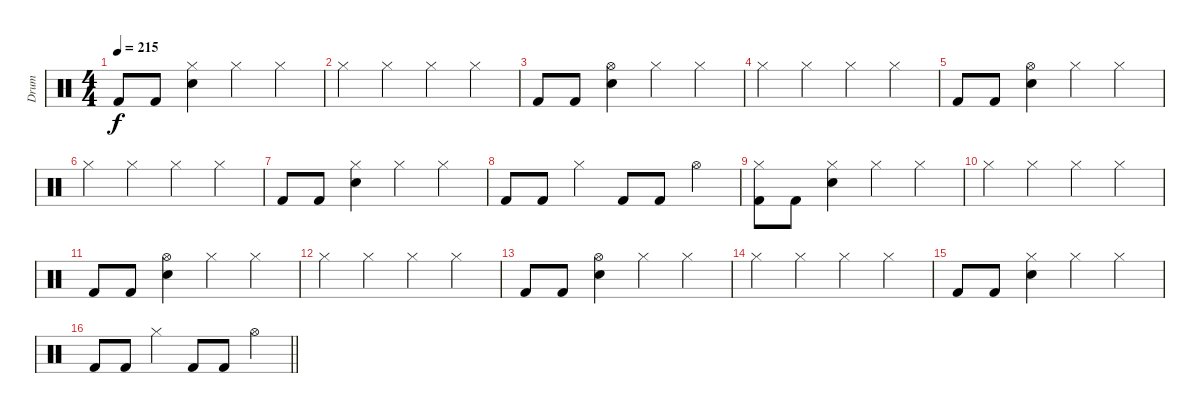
\track ("Drum" "Drum") {instrument percussion}
\staff {score}
\articulation defaults
\ts (4 4)
\tempo 215
\clef neutral
\ks c "Kick (hit) 2".8{dy f} "Kick (hit) 2".8
("Electric Snare (hit)" "Hi-Hat (closed)").4 "Hi-Hat (closed)".4 "Hi-Hat (closed)".4 |
"Hi-Hat (closed)".4 "Hi-Hat (closed)".4 "Hi-Hat (closed)".4 "Hi-Hat (closed)".4 |
"Kick (hit) 2".8 "Kick (hit) 2".8 ("Electric Snare (hit)" "Hi-Hat (open)").4 "Hi-Hat (closed)".4 "Hi-Hat (closed)".4 |
"Hi-Hat (closed)".4 "Hi-Hat (closed)".4 "Hi-Hat (closed)".4 "Hi-Hat (closed)".4 |
"Kick (hit) 2".8 "Kick (hit) 2".8 ("Electric Snare (hit)" "Hi-Hat (open)").4 "Hi-Hat (closed)".4 "Hi-Hat (closed)".4 |
"Hi-Hat (closed)".4 "Hi-Hat (closed)".4 "Hi-Hat (closed)".4 "Hi-Hat (closed)".4 |
"Kick (hit) 2".8 "Kick (hit) 2".8 ("Electric Snare (hit)" "Hi-Hat (closed)").4 "Hi-Hat (closed)".4 "Hi-Hat (closed)".4 |
"Kick (hit) 2".8 "Kick (hit) 2".8 "Hi-Hat (closed)".4 "Kick (hit) 2".8 "Kick (hit) 2".8 "Hi-Hat (open)".4 |
("Kick (hit) 2" "Hi-Hat (closed)").8 "Kick (hit) 2".8 ("Electric Snare (hit)" "Hi-Hat (closed)").4 "Hi-Hat (closed)".4 "Hi-Hat (closed)".4 |
"Hi-Hat (closed)".4 "Hi-Hat (closed)".4 "Hi-Hat (closed)".4 "Hi-Hat (closed)".4 |
"Kick (hit) 2".8 "Kick (hit) 2".8 ("Electric Snare (hit)" "Hi-Hat (open)").4 "Hi-Hat (closed)".4 "Hi-Hat (closed)".4 |
"Hi-Hat (closed)".4 "Hi-Hat (closed)".4 "Hi-Hat (closed)".4 "Hi-Hat (closed)".4 |
"Kick (hit) 2".8 "Kick (hit) 2".8 ("Electric Snare (hit)" "Hi-Hat (open)").4 "Hi-Hat (closed)".4 "Hi-Hat (closed)".4 |
"Hi-Hat (closed)".4 "Hi-Hat (closed)".4 "Hi-Hat (closed)".4 "Hi-Hat (closed)".4 |
"Kick (hit) 2".8 "Kick (hit) 2".8 ("Electric Snare (hit)" "Hi-Hat (closed)").4 "Hi-Hat (closed)".4 "Hi-Hat (closed)".4 |
\barLineRight lightlight "Kick (hit) 2".8 "Kick (hit) 2".8 "Hi-Hat (closed)".4 "Kick (hit) 2".8 "Kick (hit) 2".8 "Hi-Hat (open)".4
